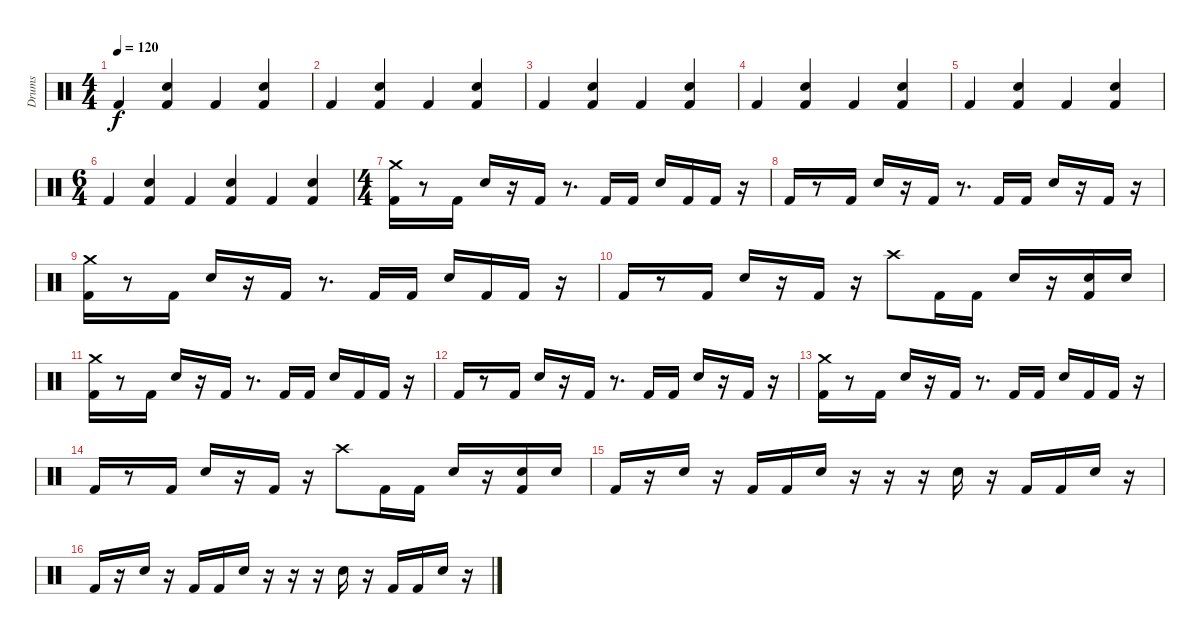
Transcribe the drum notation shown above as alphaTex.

\track ("Drums" "Drums") {instrument percussion}
\staff {score}
\articulation defaults
\ts (4 4)
\tempo 120
\clef neutral
\ks c "Kick (hit) 2".4{dy f}
("Kick (hit) 2" "Hand Clap (hit)").4 "Kick (hit) 2".4 ("Kick (hit) 2" "Hand Clap (hit)").4 |
"Kick (hit) 2".4 ("Kick (hit) 2" "Hand Clap (hit)").4 "Kick (hit) 2".4 ("Kick (hit) 2" "Hand Clap (hit)").4 |
"Kick (hit) 2".4 ("Kick (hit) 2" "Hand Clap (hit)").4 "Kick (hit) 2".4 ("Kick (hit) 2" "Hand Clap (hit)").4 |
"Kick (hit) 2".4 ("Kick (hit) 2" "Hand Clap (hit)").4 "Kick (hit) 2".4 ("Kick (hit) 2" "Hand Clap (hit)").4 |
"Kick (hit) 2".4 ("Kick (hit) 2" "Hand Clap (hit)").4 "Kick (hit) 2".4 ("Kick (hit) 2" "Hand Clap (hit)").4 |
\ts (6 4)
"Kick (hit) 2".4 ("Kick (hit) 2" "Hand Clap (hit)").4 "Kick (hit) 2".4 ("Kick (hit) 2" "Hand Clap (hit)").4 "Kick (hit) 2".4 ("Kick (hit) 2" "Hand Clap (hit)").4 |
\ts (4 4)
("Kick (hit) 2" "Crash medium (hit)").16 r.8 "Kick (hit) 2".16 "Snare (hit) 2".16 r.16 "Kick (hit) 2".16 r.8{d} "Kick (hit) 2".16 "Kick (hit) 2".16 "Snare (hit) 2".16 "Kick (hit) 2".16 "Kick (hit) 2".16 r.16 |
"Kick (hit) 2".16 r.8 "Kick (hit) 2".16 "Snare (hit) 2".16 r.16 "Kick (hit) 2".16 r.8{d} "Kick (hit) 2".16 "Kick (hit) 2".16 "Snare (hit) 2".16 r.16 "Kick (hit) 2".16 r.16 |
("Kick (hit) 2" "Crash medium (hit)").16 r.8 "Kick (hit) 2".16 "Snare (hit) 2".16 r.16 "Kick (hit) 2".16 r.8{d} "Kick (hit) 2".16 "Kick (hit) 2".16 "Snare (hit) 2".16 "Kick (hit) 2".16 "Kick (hit) 2".16 r.16 |
"Kick (hit) 2".16 r.8 "Kick (hit) 2".16 "Snare (hit) 2".16 r.16 "Kick (hit) 2".16 r.16 "Crash high (hit)".8 "Kick (hit) 2".16 "Kick (hit) 2".16 "Snare (hit) 2".16 r.16 ("Kick (hit) 2" "Snare (hit) 2").16 "Snare (hit) 2".16 |
("Kick (hit) 2" "Crash medium (hit)").16 r.8 "Kick (hit) 2".16 "Snare (hit) 2".16 r.16 "Kick (hit) 2".16 r.8{d} "Kick (hit) 2".16 "Kick (hit) 2".16 "Snare (hit) 2".16 "Kick (hit) 2".16 "Kick (hit) 2".16 r.16 |
"Kick (hit) 2".16 r.8 "Kick (hit) 2".16 "Snare (hit) 2".16 r.16 "Kick (hit) 2".16 r.8{d} "Kick (hit) 2".16 "Kick (hit) 2".16 "Snare (hit) 2".16 r.16 "Kick (hit) 2".16 r.16 |
("Kick (hit) 2" "Crash medium (hit)").16 r.8 "Kick (hit) 2".16 "Snare (hit) 2".16 r.16 "Kick (hit) 2".16 r.8{d} "Kick (hit) 2".16 "Kick (hit) 2".16 "Snare (hit) 2".16 "Kick (hit) 2".16 "Kick (hit) 2".16 r.16 |
"Kick (hit) 2".16 r.8 "Kick (hit) 2".16 "Snare (hit) 2".16 r.16 "Kick (hit) 2".16 r.16 "Crash high (hit)".8 "Kick (hit) 2".16 "Kick (hit) 2".16 "Snare (hit) 2".16 r.16 ("Kick (hit) 2" "Snare (hit) 2").16 "Snare (hit) 2".16 |
"Kick (hit) 2".16 r.16 "Snare (hit) 2".16 r.16 "Kick (hit) 2".16 "Kick (hit) 2".16 "Snare (hit) 2".16 r.16 r.16 r.16 "Snare (hit) 2".16 r.16 "Kick (hit) 2".16 "Kick (hit) 2".16 "Snare (hit) 2".16 r.16 |
"Kick (hit) 2".16 r.16 "Snare (hit) 2".16 r.16 "Kick (hit) 2".16 "Kick (hit) 2".16 "Snare (hit) 2".16 r.16 r.16 r.16 "Snare (hit) 2".16 r.16 "Kick (hit) 2".16 "Kick (hit) 2".16 "Snare (hit) 2".16 r.16
